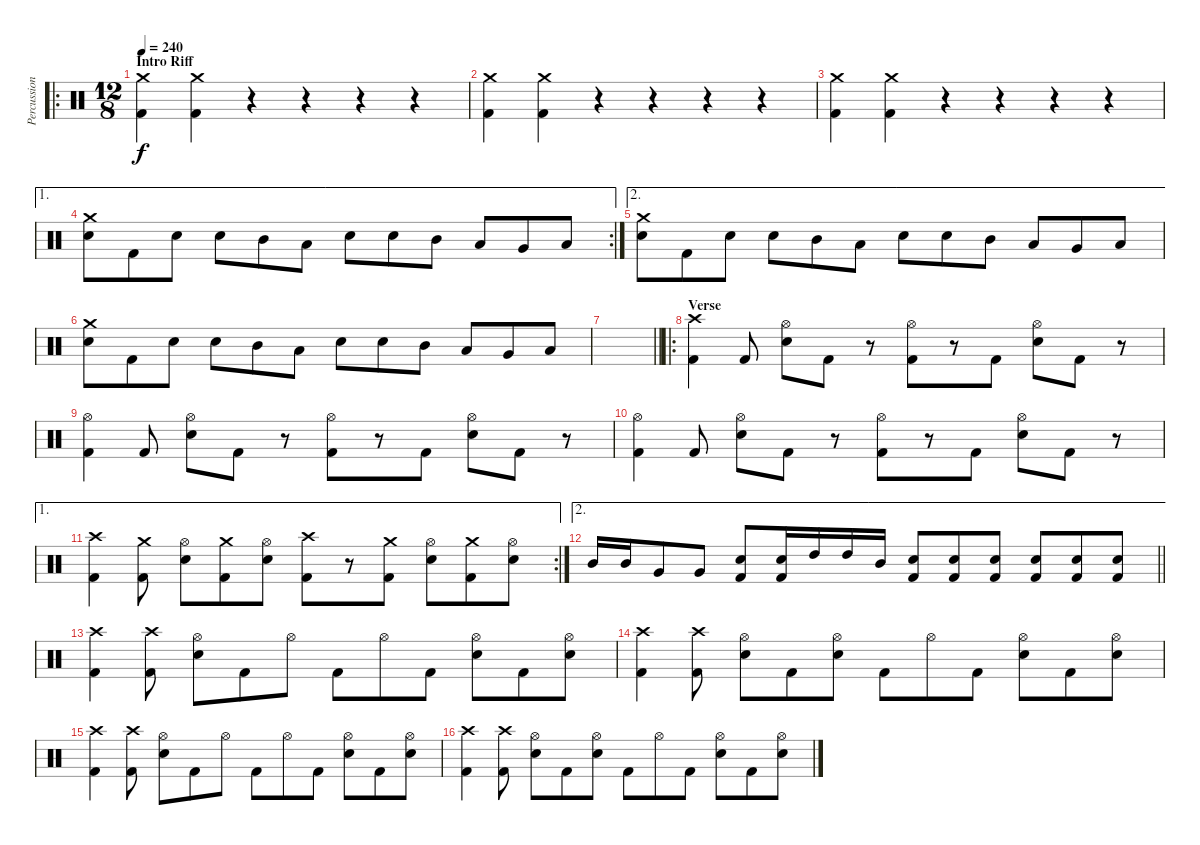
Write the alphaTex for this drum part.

\track ("Percussions" "Percussion") {instrument percussion}
\staff {score}
\articulation defaults
\ro
\ts (12 8)
\section ("" "Intro Riff")
\tempo 240
\clef neutral
\ks c
("Crash medium (hit)" "Kick (hit) 2").4{dy f} ("Crash medium (hit)" "Kick (hit) 2").4 r.4 r.4 r.4 r.4 |
("Crash medium (hit)" "Kick (hit) 2").4 ("Crash medium (hit)" "Kick (hit) 2").4 r.4 r.4 r.4 r.4 |
("Crash medium (hit)" "Kick (hit) 2").4 ("Crash medium (hit)" "Kick (hit) 2").4 r.4 r.4 r.4 r.4 |
\ae 1
\rc 2
("Crash medium (hit)" "Electric Snare (hit)").8 "Kick (hit) 2".8 "Electric Snare (hit)".8 "Electric Snare (hit)".8 "Mid Tom (hit)".8 "Low Tom (hit)".8 "Electric Snare (hit)".8 "Electric Snare (hit)".8 "Mid Tom (hit)".8 "Low Tom (hit)".8 "Very Low Tom (hit)".8 "Low Floor Tom (hit)".8 |
\ae 2
("Crash medium (hit)" "Electric Snare (hit)").8 "Kick (hit) 2".8 "Electric Snare (hit)".8 "Electric Snare (hit)".8 "Mid Tom (hit)".8 "Low Tom (hit)".8 "Electric Snare (hit)".8 "Electric Snare (hit)".8 "Mid Tom (hit)".8 "Low Tom (hit)".8 "Very Low Tom (hit)".8 "Low Floor Tom (hit)".8 |
("Crash medium (hit)" "Electric Snare (hit)").8 "Kick (hit) 2".8 "Electric Snare (hit)".8 "Electric Snare (hit)".8 "Mid Tom (hit)".8 "Low Tom (hit)".8 "Electric Snare (hit)".8 "Electric Snare (hit)".8 "Mid Tom (hit)".8 "Low Tom (hit)".8 "Very Low Tom (hit)".8 "Low Floor Tom (hit)".8 |
\barLineRight lightlight
|
\ro
\section ("" "Verse")
("Crash high (hit)" "Kick (hit) 2").4 "Kick (hit) 2".8 ("Hi-Hat (open)" "Electric Snare (hit)").8 "Kick (hit) 2".8 r.8 ("Hi-Hat (open)" "Kick (hit) 2").8 r.8 "Kick (hit) 2".8 ("Hi-Hat (open)" "Electric Snare (hit)").8 "Kick (hit) 2".8 r.8 |
("Hi-Hat (open)" "Kick (hit) 2").4 "Kick (hit) 2".8 ("Hi-Hat (open)" "Electric Snare (hit)").8 "Kick (hit) 2".8 r.8 ("Hi-Hat (open)" "Kick (hit) 2").8 r.8 "Kick (hit) 2".8 ("Hi-Hat (open)" "Electric Snare (hit)").8 "Kick (hit) 2".8 r.8 |
("Hi-Hat (open)" "Kick (hit) 2").4 "Kick (hit) 2".8 ("Hi-Hat (open)" "Electric Snare (hit)").8 "Kick (hit) 2".8 r.8 ("Hi-Hat (open)" "Kick (hit) 2").8 r.8 "Kick (hit) 2".8 ("Hi-Hat (open)" "Electric Snare (hit)").8 "Kick (hit) 2".8 r.8 |
\ae 1
\rc 2
("Crash high (hit)" "Kick (hit) 2").4 ("Crash medium (hit)" "Kick (hit) 2").8 ("Hi-Hat (open)" "Electric Snare (hit)").8 ("Crash medium (hit)" "Kick (hit) 2").8 ("Hi-Hat (open)" "Electric Snare (hit)").8 ("Crash high (hit)" "Kick (hit) 2").8 r.8 ("Crash medium (hit)" "Kick (hit) 2").8 ("Hi-Hat (open)" "Electric Snare (hit)").8 ("Crash medium (hit)" "Kick (hit) 2").8 ("Hi-Hat (open)" "Electric Snare (hit)").8 |
\ae 2
\barLineRight lightlight "Mid Tom (hit)".16 "Mid Tom (hit)".16 "Very Low Tom (hit)".8 "Very Low Tom (hit)".8
("Electric Snare (hit)" "Kick (hit) 2").8 ("Electric Snare (hit)" "Kick (hit) 2").16 "High Tom (hit)".16 "High Tom (hit)".16 "Mid Tom (hit)".16 ("Electric Snare (hit)" "Kick (hit) 2").8 ("Electric Snare (hit)" "Kick (hit) 2").8 ("Electric Snare (hit)" "Kick (hit) 2").8 ("Electric Snare (hit)" "Kick (hit) 2").8 ("Electric Snare (hit)" "Kick (hit) 2").8 ("Electric Snare (hit)" "Kick (hit) 2").8 |
("Crash high (hit)" "Kick (hit) 2").4 ("Crash high (hit)" "Kick (hit) 2").8 ("Hi-Hat (open)" "Electric Snare (hit)").8 "Kick (hit) 2".8 "Hi-Hat (open)".8 "Kick (hit) 2".8 "Hi-Hat (open)".8 "Kick (hit) 2".8 ("Hi-Hat (open)" "Electric Snare (hit)").8 "Kick (hit) 2".8 ("Hi-Hat (open)" "Electric Snare (hit)").8 |
("Crash high (hit)" "Kick (hit) 2").4 ("Crash high (hit)" "Kick (hit) 2").8 ("Hi-Hat (open)" "Electric Snare (hit)").8 "Kick (hit) 2".8 ("Hi-Hat (open)" "Electric Snare (hit)").8 "Kick (hit) 2".8 "Hi-Hat (open)".8 "Kick (hit) 2".8 ("Hi-Hat (open)" "Electric Snare (hit)").8 "Kick (hit) 2".8 ("Hi-Hat (open)" "Electric Snare (hit)").8 |
("Crash high (hit)" "Kick (hit) 2").4 ("Crash high (hit)" "Kick (hit) 2").8 ("Hi-Hat (open)" "Electric Snare (hit)").8 "Kick (hit) 2".8 "Hi-Hat (open)".8 "Kick (hit) 2".8 "Hi-Hat (open)".8 "Kick (hit) 2".8 ("Hi-Hat (open)" "Electric Snare (hit)").8 "Kick (hit) 2".8 ("Hi-Hat (open)" "Electric Snare (hit)").8 |
("Crash high (hit)" "Kick (hit) 2").4 ("Crash high (hit)" "Kick (hit) 2").8 ("Hi-Hat (open)" "Electric Snare (hit)").8 "Kick (hit) 2".8 ("Hi-Hat (open)" "Electric Snare (hit)").8 "Kick (hit) 2".8 "Hi-Hat (open)".8 "Kick (hit) 2".8 ("Hi-Hat (open)" "Electric Snare (hit)").8 "Kick (hit) 2".8 ("Hi-Hat (open)" "Electric Snare (hit)").8
